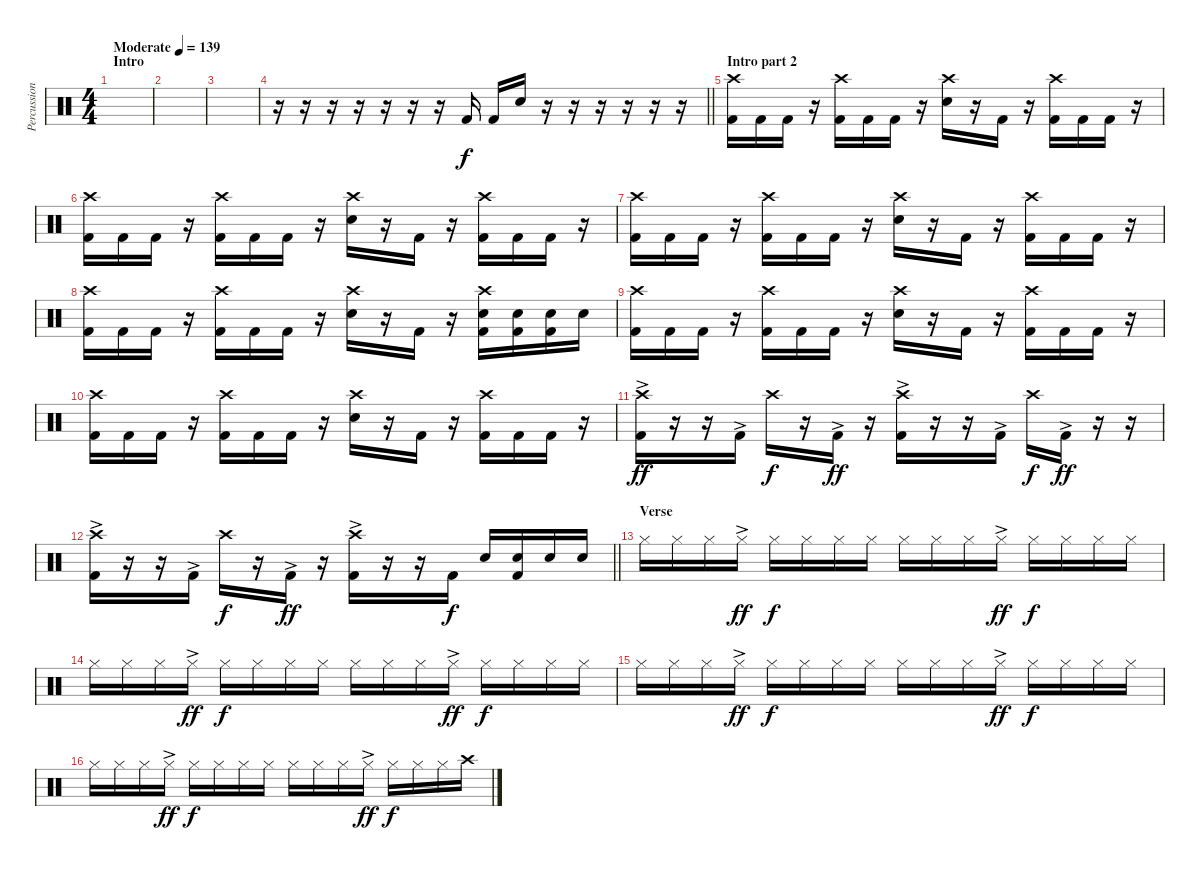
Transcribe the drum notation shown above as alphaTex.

\track ("Percussion" "Percussion") {instrument percussion}
\staff {score}
\articulation defaults
\ts (4 4)
\section ("" "Intro")
\tempo (139 "Moderate")
\clef neutral
\ks c
|
|
|
\barLineRight lightlight
r.16 r.16 r.16 r.16 r.16 r.16 r.16 "Kick (hit) 2".16 "Kick (hit) 2".16 "Snare (hit) 2".16 r.16 r.16 r.16 r.16 r.16 r.16 |
\section ("" "Intro part 2")
("Crash high (hit)" "Kick (hit) 2").16 "Kick (hit) 2".16 "Kick (hit) 2".16 r.16 ("Crash high (hit)" "Kick (hit) 2").16 "Kick (hit) 2".16 "Kick (hit) 2".16 r.16 ("Crash high (hit)" "Snare (hit) 2").16 r.16 "Kick (hit) 2".16 r.16 ("Crash high (hit)" "Kick (hit) 2").16 "Kick (hit) 2".16 "Kick (hit) 2".16 r.16 |
("Crash high (hit)" "Kick (hit) 2").16 "Kick (hit) 2".16 "Kick (hit) 2".16 r.16 ("Crash high (hit)" "Kick (hit) 2").16 "Kick (hit) 2".16 "Kick (hit) 2".16 r.16 ("Crash high (hit)" "Snare (hit) 2").16 r.16 "Kick (hit) 2".16 r.16 ("Crash high (hit)" "Kick (hit) 2").16 "Kick (hit) 2".16 "Kick (hit) 2".16 r.16 |
("Crash high (hit)" "Kick (hit) 2").16 "Kick (hit) 2".16 "Kick (hit) 2".16 r.16 ("Crash high (hit)" "Kick (hit) 2").16 "Kick (hit) 2".16 "Kick (hit) 2".16 r.16 ("Crash high (hit)" "Snare (hit) 2").16 r.16 "Kick (hit) 2".16 r.16 ("Crash high (hit)" "Kick (hit) 2").16 "Kick (hit) 2".16 "Kick (hit) 2".16 r.16 |
("Crash high (hit)" "Kick (hit) 2").16 "Kick (hit) 2".16 "Kick (hit) 2".16 r.16 ("Crash high (hit)" "Kick (hit) 2").16 "Kick (hit) 2".16 "Kick (hit) 2".16 r.16 ("Crash high (hit)" "Snare (hit) 2").16 r.16 "Kick (hit) 2".16 r.16 ("Crash high (hit)" "Snare (hit) 2" "Kick (hit) 2").16 ("Snare (hit) 2" "Kick (hit) 2").16 ("Snare (hit) 2" "Kick (hit) 2").16 "Snare (hit) 2".16 |
("Crash high (hit)" "Kick (hit) 2").16 "Kick (hit) 2".16 "Kick (hit) 2".16 r.16 ("Crash high (hit)" "Kick (hit) 2").16 "Kick (hit) 2".16 "Kick (hit) 2".16 r.16 ("Crash high (hit)" "Snare (hit) 2").16 r.16 "Kick (hit) 2".16 r.16 ("Crash high (hit)" "Kick (hit) 2").16 "Kick (hit) 2".16 "Kick (hit) 2".16 r.16 |
("Crash high (hit)" "Kick (hit) 2").16 "Kick (hit) 2".16 "Kick (hit) 2".16 r.16 ("Crash high (hit)" "Kick (hit) 2").16 "Kick (hit) 2".16 "Kick (hit) 2".16 r.16 ("Crash high (hit)" "Snare (hit) 2").16 r.16 "Kick (hit) 2".16 r.16 ("Crash high (hit)" "Kick (hit) 2").16 "Kick (hit) 2".16 "Kick (hit) 2".16 r.16 |
("Crash high (hit)" "Kick (hit) 2"{ac}).16{dy ff} r.16 r.16 "Kick (hit) 2"{ac}.16 "Crash high (hit)".16{dy f} r.16 "Kick (hit) 2"{ac}.16{dy ff} r.16 ("Crash high (hit)" "Kick (hit) 2"{ac}).16 r.16 r.16 "Kick (hit) 2"{ac}.16 "Crash high (hit)".16{dy f} "Kick (hit) 2"{ac}.16{dy ff} r.16 r.16 |
\barLineRight lightlight
("Crash high (hit)" "Kick (hit) 2"{ac}).16 r.16 r.16 "Kick (hit) 2"{ac}.16 "Crash high (hit)".16{dy f} r.16 "Kick (hit) 2"{ac}.16{dy ff} r.16 ("Crash high (hit)" "Kick (hit) 2"{ac}).16 r.16 r.16 "Kick (hit) 2".16{dy f} "Snare (hit) 2".16 ("Snare (hit) 2" "Kick (hit) 2").16 "Snare (hit) 2".16 "Snare (hit) 2".16 |
\section ("" "Verse")
"Hi-Hat (closed)".16 "Hi-Hat (closed)".16 "Hi-Hat (closed)".16 "Hi-Hat (closed)"{ac}.16{dy ff} "Hi-Hat (closed)".16{dy f} "Hi-Hat (closed)".16 "Hi-Hat (closed)".16 "Hi-Hat (closed)".16 "Hi-Hat (closed)".16 "Hi-Hat (closed)".16 "Hi-Hat (closed)".16 "Hi-Hat (closed)"{ac}.16{dy ff} "Hi-Hat (closed)".16{dy f} "Hi-Hat (closed)".16 "Hi-Hat (closed)".16 "Hi-Hat (closed)".16 |
"Hi-Hat (closed)".16 "Hi-Hat (closed)".16 "Hi-Hat (closed)".16 "Hi-Hat (closed)"{ac}.16{dy ff} "Hi-Hat (closed)".16{dy f} "Hi-Hat (closed)".16 "Hi-Hat (closed)".16 "Hi-Hat (closed)".16 "Hi-Hat (closed)".16 "Hi-Hat (closed)".16 "Hi-Hat (closed)".16 "Hi-Hat (closed)"{ac}.16{dy ff} "Hi-Hat (closed)".16{dy f} "Hi-Hat (closed)".16 "Hi-Hat (closed)".16 "Hi-Hat (closed)".16 |
"Hi-Hat (closed)".16 "Hi-Hat (closed)".16 "Hi-Hat (closed)".16 "Hi-Hat (closed)"{ac}.16{dy ff} "Hi-Hat (closed)".16{dy f} "Hi-Hat (closed)".16 "Hi-Hat (closed)".16 "Hi-Hat (closed)".16 "Hi-Hat (closed)".16 "Hi-Hat (closed)".16 "Hi-Hat (closed)".16 "Hi-Hat (closed)"{ac}.16{dy ff} "Hi-Hat (closed)".16{dy f} "Hi-Hat (closed)".16 "Hi-Hat (closed)".16 "Hi-Hat (closed)".16 |
"Hi-Hat (closed)".16 "Hi-Hat (closed)".16 "Hi-Hat (closed)".16 "Hi-Hat (closed)"{ac}.16{dy ff} "Hi-Hat (closed)".16{dy f} "Hi-Hat (closed)".16 "Hi-Hat (closed)".16 "Hi-Hat (closed)".16 "Hi-Hat (closed)".16 "Hi-Hat (closed)".16 "Hi-Hat (closed)".16 "Hi-Hat (closed)"{ac}.16{dy ff} "Hi-Hat (closed)".16{dy f} "Hi-Hat (closed)".16 "Hi-Hat (closed)".16 "Crash high (hit)".16
